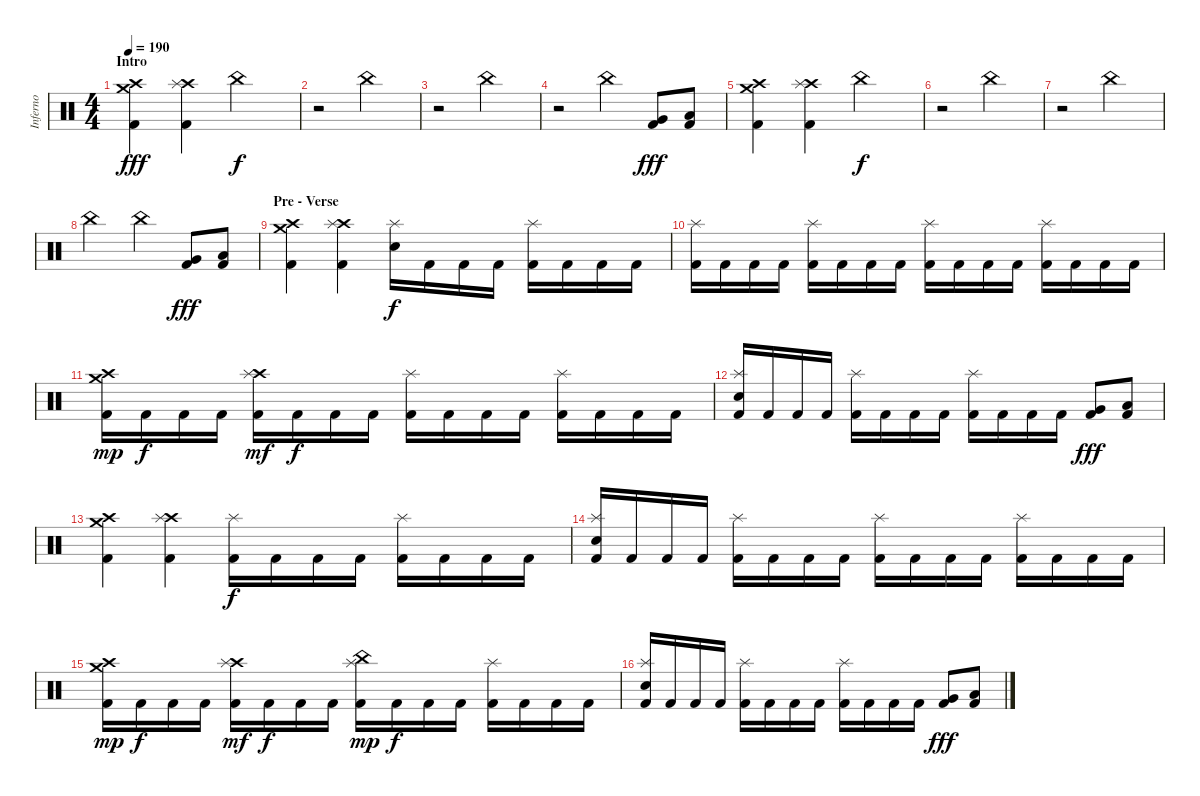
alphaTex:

\track ("Inferno" "Inferno") {instrument percussion}
\staff {score}
\articulation defaults
\ts (4 4)
\section ("" "Intro")
\tempo 190
\clef neutral
\ks c
("Crash high (hit)" "Crash medium (hit)" "Kick (hit) 2").4{dy fff} ("Crash high (hit)" "Splash (hit)" "Kick (hit) 2").4 "China (hit)".2{dy f} |
r.2 "China (hit)".2 |
r.2 "China (hit)".2 |
r.2 "China (hit)".4 ("Very Low Tom (hit)" "Kick (hit) 2").8{dy fff} ("Low Floor Tom (hit)" "Kick (hit) 2").8 |
("Crash high (hit)" "Crash medium (hit)" "Kick (hit) 2").4 ("Crash high (hit)" "Splash (hit)" "Kick (hit) 2").4 "China (hit)".2{dy f} |
r.2 "China (hit)".2 |
r.2 "China (hit)".2 |
"China (hit)".2 "China (hit)".4 ("Very Low Tom (hit)" "Kick (hit) 2").8{dy fff} ("Low Floor Tom (hit)" "Kick (hit) 2").8 |
\section ("" "Pre - Verse")
("Crash high (hit)" "Crash medium (hit)" "Kick (hit) 2").4 ("Crash high (hit)" "Splash (hit)" "Kick (hit) 2").4 ("Splash (hit)" "Snare (hit) 2").16{dy f} "Kick (hit) 2".16 "Kick (hit) 2".16 "Kick (hit) 2".16 ("Splash (hit)" "Kick (hit) 2").16 "Kick (hit) 2".16 "Kick (hit) 2".16 "Kick (hit) 2".16 |
("Splash (hit)" "Kick (hit) 2").16 "Kick (hit) 2".16 "Kick (hit) 2".16 "Kick (hit) 2".16 ("Splash (hit)" "Kick (hit) 2").16 "Kick (hit) 2".16 "Kick (hit) 2".16 "Kick (hit) 2".16 ("Splash (hit)" "Kick (hit) 2").16 "Kick (hit) 2".16 "Kick (hit) 2".16 "Kick (hit) 2".16 ("Splash (hit)" "Kick (hit) 2").16 "Kick (hit) 2".16 "Kick (hit) 2".16 "Kick (hit) 2".16 |
("Crash high (hit)" "Crash medium (hit)" "Kick (hit) 2").16{dy mp} "Kick (hit) 2".16{dy f} "Kick (hit) 2".16 "Kick (hit) 2".16 ("Crash high (hit)" "Splash (hit)" "Kick (hit) 2").16{dy mf} "Kick (hit) 2".16{dy f} "Kick (hit) 2".16 "Kick (hit) 2".16 ("Splash (hit)" "Kick (hit) 2").16 "Kick (hit) 2".16 "Kick (hit) 2".16 "Kick (hit) 2".16 ("Splash (hit)" "Kick (hit) 2").16 "Kick (hit) 2".16 "Kick (hit) 2".16 "Kick (hit) 2".16 |
("Splash (hit)" "Snare (hit) 2" "Kick (hit) 2").16 "Kick (hit) 2".16 "Kick (hit) 2".16 "Kick (hit) 2".16 ("Splash (hit)" "Kick (hit) 2").16 "Kick (hit) 2".16 "Kick (hit) 2".16 "Kick (hit) 2".16 ("Splash (hit)" "Kick (hit) 2").16 "Kick (hit) 2".16 "Kick (hit) 2".16 "Kick (hit) 2".16 ("Very Low Tom (hit)" "Kick (hit) 2").8{dy fff} ("Low Floor Tom (hit)" "Kick (hit) 2").8 |
("Crash high (hit)" "Crash medium (hit)" "Kick (hit) 2").4 ("Crash high (hit)" "Splash (hit)" "Kick (hit) 2").4 ("Splash (hit)" "Kick (hit) 2").16{dy f} "Kick (hit) 2".16 "Kick (hit) 2".16 "Kick (hit) 2".16 ("Splash (hit)" "Kick (hit) 2").16 "Kick (hit) 2".16 "Kick (hit) 2".16 "Kick (hit) 2".16 |
("Splash (hit)" "Snare (hit) 2" "Kick (hit) 2").16 "Kick (hit) 2".16 "Kick (hit) 2".16 "Kick (hit) 2".16 ("Splash (hit)" "Kick (hit) 2").16 "Kick (hit) 2".16 "Kick (hit) 2".16 "Kick (hit) 2".16 ("Splash (hit)" "Kick (hit) 2").16 "Kick (hit) 2".16 "Kick (hit) 2".16 "Kick (hit) 2".16 ("Splash (hit)" "Kick (hit) 2").16 "Kick (hit) 2".16 "Kick (hit) 2".16 "Kick (hit) 2".16 |
("Crash high (hit)" "Crash medium (hit)" "Kick (hit) 2").16{dy mp} "Kick (hit) 2".16{dy f} "Kick (hit) 2".16 "Kick (hit) 2".16 ("Crash high (hit)" "Splash (hit)" "Kick (hit) 2").16{dy mf} "Kick (hit) 2".16{dy f} "Kick (hit) 2".16 "Kick (hit) 2".16 ("Splash (hit)" "China (hit)" "Kick (hit) 2").16{dy mp} "Kick (hit) 2".16{dy f} "Kick (hit) 2".16 "Kick (hit) 2".16 ("Splash (hit)" "Kick (hit) 2").16 "Kick (hit) 2".16 "Kick (hit) 2".16 "Kick (hit) 2".16 |
("Splash (hit)" "Snare (hit) 2" "Kick (hit) 2").16 "Kick (hit) 2".16 "Kick (hit) 2".16 "Kick (hit) 2".16 ("Splash (hit)" "Kick (hit) 2").16 "Kick (hit) 2".16 "Kick (hit) 2".16 "Kick (hit) 2".16 ("Splash (hit)" "Kick (hit) 2").16 "Kick (hit) 2".16 "Kick (hit) 2".16 "Kick (hit) 2".16 ("Very Low Tom (hit)" "Kick (hit) 2").8{dy fff} ("Low Floor Tom (hit)" "Kick (hit) 2").8
